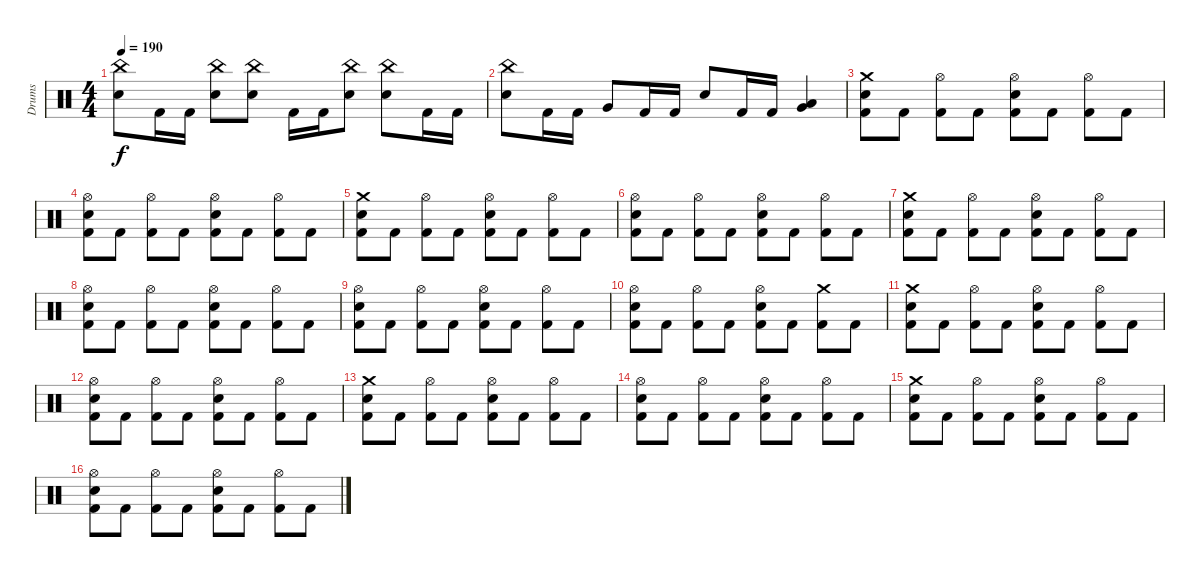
\track ("Drums" "Drums") {instrument percussion}
\staff {score}
\articulation defaults
\ts (4 4)
\tempo 190
\clef neutral
\ks c
("China (hit)" "Electric Snare (hit)").8{dy f} "Kick (hit) 2".16 "Kick (hit) 2".16 ("China (hit)" "Electric Snare (hit)").8 ("China (hit)" "Electric Snare (hit)").8 "Kick (hit) 2".16 "Kick (hit) 2".16 ("China (hit)" "Electric Snare (hit)").8 ("China (hit)" "Electric Snare (hit)").8 "Kick (hit) 2".16 "Kick (hit) 2".16 |
("China (hit)" "Electric Snare (hit)").8 "Kick (hit) 2".16 "Kick (hit) 2".16 "Very Low Tom (hit)".8 "Kick (hit) 2".16 "Kick (hit) 2".16 "Electric Snare (hit)".8 "Kick (hit) 2".16 "Kick (hit) 2".16 ("Very Low Tom (hit)" "Low Floor Tom (hit)").4 |
("Crash medium (hit)" "Electric Snare (hit)" "Kick (hit) 2").8 "Kick (hit) 2".8 ("Hi-Hat (open)" "Kick (hit) 2").8 "Kick (hit) 2".8 ("Hi-Hat (open)" "Electric Snare (hit)" "Kick (hit) 2").8 "Kick (hit) 2".8 ("Hi-Hat (open)" "Kick (hit) 2").8 "Kick (hit) 2".8 |
("Hi-Hat (open)" "Electric Snare (hit)" "Kick (hit) 2").8 "Kick (hit) 2".8 ("Hi-Hat (open)" "Kick (hit) 2").8 "Kick (hit) 2".8 ("Hi-Hat (open)" "Electric Snare (hit)" "Kick (hit) 2").8 "Kick (hit) 2".8 ("Hi-Hat (open)" "Kick (hit) 2").8 "Kick (hit) 2".8 |
("Crash medium (hit)" "Electric Snare (hit)" "Kick (hit) 2").8 "Kick (hit) 2".8 ("Hi-Hat (open)" "Kick (hit) 2").8 "Kick (hit) 2".8 ("Hi-Hat (open)" "Electric Snare (hit)" "Kick (hit) 2").8 "Kick (hit) 2".8 ("Hi-Hat (open)" "Kick (hit) 2").8 "Kick (hit) 2".8 |
("Hi-Hat (open)" "Electric Snare (hit)" "Kick (hit) 2").8 "Kick (hit) 2".8 ("Hi-Hat (open)" "Kick (hit) 2").8 "Kick (hit) 2".8 ("Hi-Hat (open)" "Electric Snare (hit)" "Kick (hit) 2").8 "Kick (hit) 2".8 ("Hi-Hat (open)" "Kick (hit) 2").8 "Kick (hit) 2".8 |
("Crash medium (hit)" "Electric Snare (hit)" "Kick (hit) 2").8 "Kick (hit) 2".8 ("Hi-Hat (open)" "Kick (hit) 2").8 "Kick (hit) 2".8 ("Hi-Hat (open)" "Electric Snare (hit)" "Kick (hit) 2").8 "Kick (hit) 2".8 ("Hi-Hat (open)" "Kick (hit) 2").8 "Kick (hit) 2".8 |
("Hi-Hat (open)" "Electric Snare (hit)" "Kick (hit) 2").8 "Kick (hit) 2".8 ("Hi-Hat (open)" "Kick (hit) 2").8 "Kick (hit) 2".8 ("Hi-Hat (open)" "Electric Snare (hit)" "Kick (hit) 2").8 "Kick (hit) 2".8 ("Hi-Hat (open)" "Kick (hit) 2").8 "Kick (hit) 2".8 |
("Hi-Hat (open)" "Electric Snare (hit)" "Kick (hit) 2").8 "Kick (hit) 2".8 ("Hi-Hat (open)" "Kick (hit) 2").8 "Kick (hit) 2".8 ("Hi-Hat (open)" "Electric Snare (hit)" "Kick (hit) 2").8 "Kick (hit) 2".8 ("Hi-Hat (open)" "Kick (hit) 2").8 "Kick (hit) 2".8 |
("Hi-Hat (open)" "Electric Snare (hit)" "Kick (hit) 2").8 "Kick (hit) 2".8 ("Hi-Hat (open)" "Kick (hit) 2").8 "Kick (hit) 2".8 ("Hi-Hat (open)" "Electric Snare (hit)" "Kick (hit) 2").8 "Kick (hit) 2".8 ("Crash medium (hit)" "Kick (hit) 2").8 "Kick (hit) 2".8 |
("Crash medium (hit)" "Electric Snare (hit)" "Kick (hit) 2").8 "Kick (hit) 2".8 ("Hi-Hat (open)" "Kick (hit) 2").8 "Kick (hit) 2".8 ("Hi-Hat (open)" "Electric Snare (hit)" "Kick (hit) 2").8 "Kick (hit) 2".8 ("Hi-Hat (open)" "Kick (hit) 2").8 "Kick (hit) 2".8 |
("Hi-Hat (open)" "Electric Snare (hit)" "Kick (hit) 2").8 "Kick (hit) 2".8 ("Hi-Hat (open)" "Kick (hit) 2").8 "Kick (hit) 2".8 ("Hi-Hat (open)" "Electric Snare (hit)" "Kick (hit) 2").8 "Kick (hit) 2".8 ("Hi-Hat (open)" "Kick (hit) 2").8 "Kick (hit) 2".8 |
("Crash medium (hit)" "Electric Snare (hit)" "Kick (hit) 2").8 "Kick (hit) 2".8 ("Hi-Hat (open)" "Kick (hit) 2").8 "Kick (hit) 2".8 ("Hi-Hat (open)" "Electric Snare (hit)" "Kick (hit) 2").8 "Kick (hit) 2".8 ("Hi-Hat (open)" "Kick (hit) 2").8 "Kick (hit) 2".8 |
("Hi-Hat (open)" "Electric Snare (hit)" "Kick (hit) 2").8 "Kick (hit) 2".8 ("Hi-Hat (open)" "Kick (hit) 2").8 "Kick (hit) 2".8 ("Hi-Hat (open)" "Electric Snare (hit)" "Kick (hit) 2").8 "Kick (hit) 2".8 ("Hi-Hat (open)" "Kick (hit) 2").8 "Kick (hit) 2".8 |
("Crash medium (hit)" "Electric Snare (hit)" "Kick (hit) 2").8 "Kick (hit) 2".8 ("Hi-Hat (open)" "Kick (hit) 2").8 "Kick (hit) 2".8 ("Hi-Hat (open)" "Electric Snare (hit)" "Kick (hit) 2").8 "Kick (hit) 2".8 ("Hi-Hat (open)" "Kick (hit) 2").8 "Kick (hit) 2".8 |
("Hi-Hat (open)" "Electric Snare (hit)" "Kick (hit) 2").8 "Kick (hit) 2".8 ("Hi-Hat (open)" "Kick (hit) 2").8 "Kick (hit) 2".8 ("Hi-Hat (open)" "Electric Snare (hit)" "Kick (hit) 2").8 "Kick (hit) 2".8 ("Hi-Hat (open)" "Kick (hit) 2").8 "Kick (hit) 2".8
